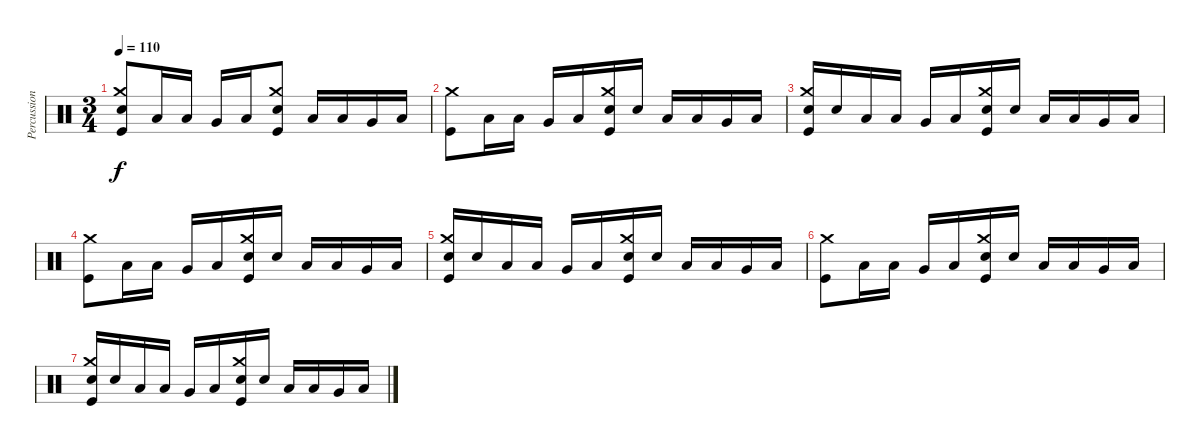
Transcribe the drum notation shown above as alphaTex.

\track ("Percussion" "Percussion") {instrument percussion}
\staff {score}
\articulation defaults
\ts (3 4)
\tempo 110
\clef neutral
\ks c
("Snare (hit) 2" "Crash medium (hit)" "Kick (hit)").8{dy f} "Low Tom (hit)".16 "Low Tom (hit)".16 "Very Low Tom (hit)".16 "Low Floor Tom (hit)".16 ("Snare (hit) 2" "Crash medium (hit)" "Kick (hit)").8 "Low Tom (hit)".16 "Low Tom (hit)".16 "Very Low Tom (hit)".16 "Low Floor Tom (hit)".16 |
("Crash medium (hit)" "Kick (hit)").8 "Low Tom (hit)".16 "Low Tom (hit)".16 "Very Low Tom (hit)".16 "Low Floor Tom (hit)".16 ("Snare (hit) 2" "Crash medium (hit)" "Kick (hit)").16 "Snare (hit) 2".16 "Low Tom (hit)".16 "Low Tom (hit)".16 "Very Low Tom (hit)".16 "Low Floor Tom (hit)".16 |
("Snare (hit) 2" "Crash medium (hit)" "Kick (hit)").16 "Snare (hit) 2".16 "Low Tom (hit)".16 "Low Tom (hit)".16 "Very Low Tom (hit)".16 "Low Floor Tom (hit)".16 ("Snare (hit) 2" "Crash medium (hit)" "Kick (hit)").16 "Snare (hit) 2".16 "Low Tom (hit)".16 "Low Tom (hit)".16 "Very Low Tom (hit)".16 "Low Floor Tom (hit)".16 |
("Crash medium (hit)" "Kick (hit)").8 "Low Tom (hit)".16 "Low Tom (hit)".16 "Very Low Tom (hit)".16 "Low Floor Tom (hit)".16 ("Snare (hit) 2" "Crash medium (hit)" "Kick (hit)").16 "Snare (hit) 2".16 "Low Tom (hit)".16 "Low Tom (hit)".16 "Very Low Tom (hit)".16 "Low Floor Tom (hit)".16 |
("Snare (hit) 2" "Crash medium (hit)" "Kick (hit)").16 "Snare (hit) 2".16 "Low Tom (hit)".16 "Low Tom (hit)".16 "Very Low Tom (hit)".16 "Low Floor Tom (hit)".16 ("Snare (hit) 2" "Crash medium (hit)" "Kick (hit)").16 "Snare (hit) 2".16 "Low Tom (hit)".16 "Low Tom (hit)".16 "Very Low Tom (hit)".16 "Low Floor Tom (hit)".16 |
("Crash medium (hit)" "Kick (hit)").8 "Low Tom (hit)".16 "Low Tom (hit)".16 "Very Low Tom (hit)".16 "Low Floor Tom (hit)".16 ("Snare (hit) 2" "Crash medium (hit)" "Kick (hit)").16 "Snare (hit) 2".16 "Low Tom (hit)".16 "Low Tom (hit)".16 "Very Low Tom (hit)".16 "Low Floor Tom (hit)".16 |
("Snare (hit) 2" "Crash medium (hit)" "Kick (hit)").16 "Snare (hit) 2".16 "Low Tom (hit)".16 "Low Tom (hit)".16 "Very Low Tom (hit)".16 "Low Floor Tom (hit)".16 ("Snare (hit) 2" "Crash medium (hit)" "Kick (hit)").16 "Snare (hit) 2".16 "Low Tom (hit)".16 "Low Tom (hit)".16 "Very Low Tom (hit)".16 "Low Floor Tom (hit)".16
